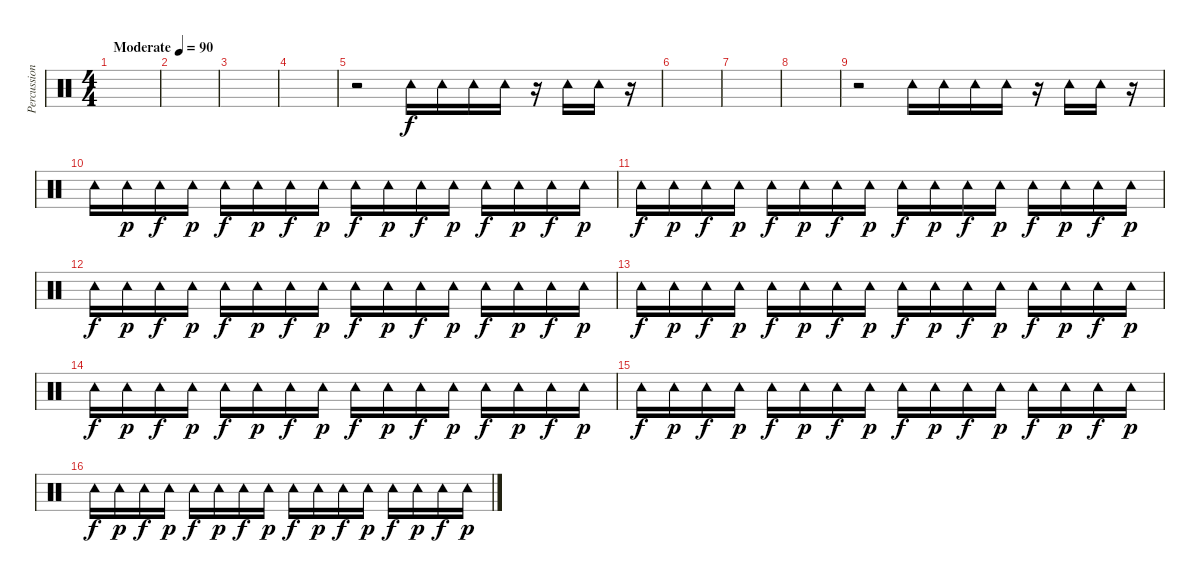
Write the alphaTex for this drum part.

\track ("Percussion" "Percussion") {instrument percussion}
\staff {score}
\articulation defaults
\ts (4 4)
\tempo (90 "Moderate")
\clef neutral
\ks c
|
|
|
|
r.2 "Tambourine (hit)".16 "Tambourine (hit)".16 "Tambourine (hit)".16 "Tambourine (hit)".16 r.16 "Tambourine (hit)".16 "Tambourine (hit)".16 r.16 |
|
|
|
r.2 "Tambourine (hit)".16 "Tambourine (hit)".16 "Tambourine (hit)".16 "Tambourine (hit)".16 r.16 "Tambourine (hit)".16 "Tambourine (hit)".16 r.16 |
"Tambourine (hit)".16{dy f} "Tambourine (hit)".16{dy p} "Tambourine (hit)".16{dy f} "Tambourine (hit)".16{dy p} "Tambourine (hit)".16{dy f} "Tambourine (hit)".16{dy p} "Tambourine (hit)".16{dy f} "Tambourine (hit)".16{dy p} "Tambourine (hit)".16{dy f} "Tambourine (hit)".16{dy p} "Tambourine (hit)".16{dy f} "Tambourine (hit)".16{dy p} "Tambourine (hit)".16{dy f} "Tambourine (hit)".16{dy p} "Tambourine (hit)".16{dy f} "Tambourine (hit)".16{dy p} |
"Tambourine (hit)".16{dy f} "Tambourine (hit)".16{dy p} "Tambourine (hit)".16{dy f} "Tambourine (hit)".16{dy p} "Tambourine (hit)".16{dy f} "Tambourine (hit)".16{dy p} "Tambourine (hit)".16{dy f} "Tambourine (hit)".16{dy p} "Tambourine (hit)".16{dy f} "Tambourine (hit)".16{dy p} "Tambourine (hit)".16{dy f} "Tambourine (hit)".16{dy p} "Tambourine (hit)".16{dy f} "Tambourine (hit)".16{dy p} "Tambourine (hit)".16{dy f} "Tambourine (hit)".16{dy p} |
"Tambourine (hit)".16{dy f} "Tambourine (hit)".16{dy p} "Tambourine (hit)".16{dy f} "Tambourine (hit)".16{dy p} "Tambourine (hit)".16{dy f} "Tambourine (hit)".16{dy p} "Tambourine (hit)".16{dy f} "Tambourine (hit)".16{dy p} "Tambourine (hit)".16{dy f} "Tambourine (hit)".16{dy p} "Tambourine (hit)".16{dy f} "Tambourine (hit)".16{dy p} "Tambourine (hit)".16{dy f} "Tambourine (hit)".16{dy p} "Tambourine (hit)".16{dy f} "Tambourine (hit)".16{dy p} |
"Tambourine (hit)".16{dy f} "Tambourine (hit)".16{dy p} "Tambourine (hit)".16{dy f} "Tambourine (hit)".16{dy p} "Tambourine (hit)".16{dy f} "Tambourine (hit)".16{dy p} "Tambourine (hit)".16{dy f} "Tambourine (hit)".16{dy p} "Tambourine (hit)".16{dy f} "Tambourine (hit)".16{dy p} "Tambourine (hit)".16{dy f} "Tambourine (hit)".16{dy p} "Tambourine (hit)".16{dy f} "Tambourine (hit)".16{dy p} "Tambourine (hit)".16{dy f} "Tambourine (hit)".16{dy p} |
"Tambourine (hit)".16{dy f} "Tambourine (hit)".16{dy p} "Tambourine (hit)".16{dy f} "Tambourine (hit)".16{dy p} "Tambourine (hit)".16{dy f} "Tambourine (hit)".16{dy p} "Tambourine (hit)".16{dy f} "Tambourine (hit)".16{dy p} "Tambourine (hit)".16{dy f} "Tambourine (hit)".16{dy p} "Tambourine (hit)".16{dy f} "Tambourine (hit)".16{dy p} "Tambourine (hit)".16{dy f} "Tambourine (hit)".16{dy p} "Tambourine (hit)".16{dy f} "Tambourine (hit)".16{dy p} |
"Tambourine (hit)".16{dy f} "Tambourine (hit)".16{dy p} "Tambourine (hit)".16{dy f} "Tambourine (hit)".16{dy p} "Tambourine (hit)".16{dy f} "Tambourine (hit)".16{dy p} "Tambourine (hit)".16{dy f} "Tambourine (hit)".16{dy p} "Tambourine (hit)".16{dy f} "Tambourine (hit)".16{dy p} "Tambourine (hit)".16{dy f} "Tambourine (hit)".16{dy p} "Tambourine (hit)".16{dy f} "Tambourine (hit)".16{dy p} "Tambourine (hit)".16{dy f} "Tambourine (hit)".16{dy p} |
"Tambourine (hit)".16{dy f} "Tambourine (hit)".16{dy p} "Tambourine (hit)".16{dy f} "Tambourine (hit)".16{dy p} "Tambourine (hit)".16{dy f} "Tambourine (hit)".16{dy p} "Tambourine (hit)".16{dy f} "Tambourine (hit)".16{dy p} "Tambourine (hit)".16{dy f} "Tambourine (hit)".16{dy p} "Tambourine (hit)".16{dy f} "Tambourine (hit)".16{dy p} "Tambourine (hit)".16{dy f} "Tambourine (hit)".16{dy p} "Tambourine (hit)".16{dy f} "Tambourine (hit)".16{dy p}
